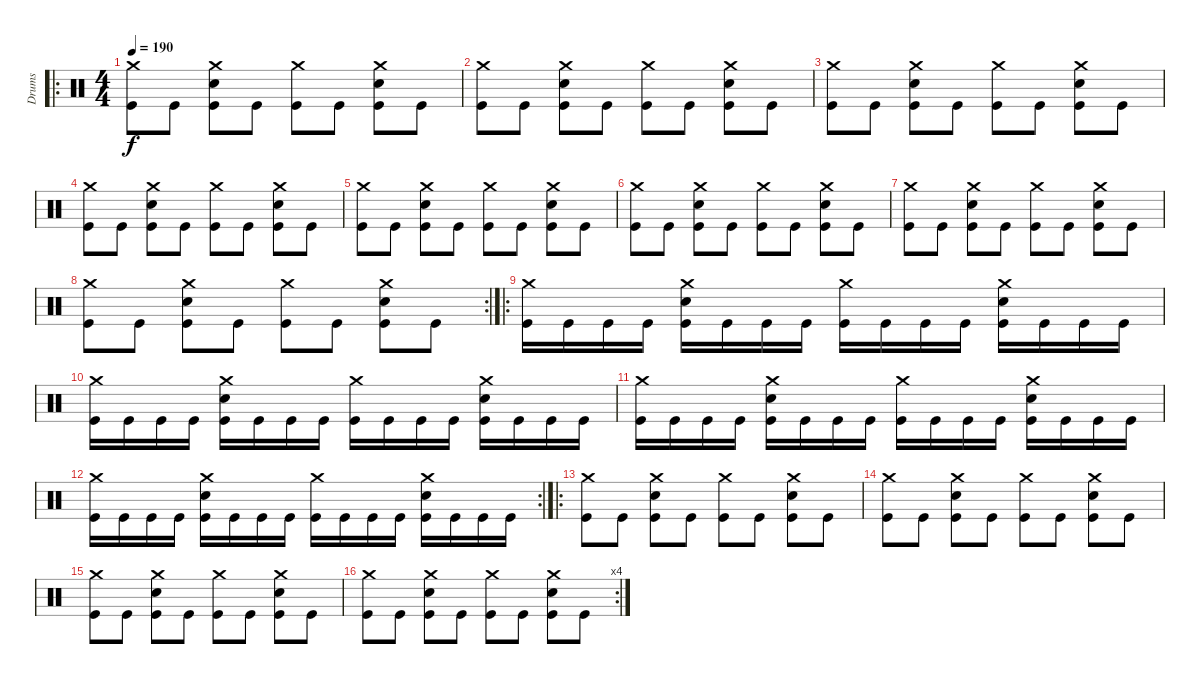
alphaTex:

\track ("Drums" "Drums") {instrument percussion}
\staff {score}
\articulation defaults
\ro
\ts (4 4)
\tempo 190
\clef neutral
\ks c
("Crash medium (hit)" "Kick (hit)").8{dy f} "Kick (hit)".8 ("Crash medium (hit)" "Snare (hit) 2" "Kick (hit)").8 "Kick (hit)".8 ("Crash medium (hit)" "Kick (hit)").8 "Kick (hit)".8 ("Crash medium (hit)" "Snare (hit) 2" "Kick (hit)").8 "Kick (hit)".8 |
("Crash medium (hit)" "Kick (hit)").8 "Kick (hit)".8 ("Crash medium (hit)" "Snare (hit) 2" "Kick (hit)").8 "Kick (hit)".8 ("Crash medium (hit)" "Kick (hit)").8 "Kick (hit)".8 ("Crash medium (hit)" "Snare (hit) 2" "Kick (hit)").8 "Kick (hit)".8 |
("Crash medium (hit)" "Kick (hit)").8 "Kick (hit)".8 ("Crash medium (hit)" "Snare (hit) 2" "Kick (hit)").8 "Kick (hit)".8 ("Crash medium (hit)" "Kick (hit)").8 "Kick (hit)".8 ("Crash medium (hit)" "Snare (hit) 2" "Kick (hit)").8 "Kick (hit)".8 |
("Crash medium (hit)" "Kick (hit)").8 "Kick (hit)".8 ("Crash medium (hit)" "Snare (hit) 2" "Kick (hit)").8 "Kick (hit)".8 ("Crash medium (hit)" "Kick (hit)").8 "Kick (hit)".8 ("Crash medium (hit)" "Snare (hit) 2" "Kick (hit)").8 "Kick (hit)".8 |
("Crash medium (hit)" "Kick (hit)").8 "Kick (hit)".8 ("Crash medium (hit)" "Snare (hit) 2" "Kick (hit)").8 "Kick (hit)".8 ("Crash medium (hit)" "Kick (hit)").8 "Kick (hit)".8 ("Crash medium (hit)" "Snare (hit) 2" "Kick (hit)").8 "Kick (hit)".8 |
("Crash medium (hit)" "Kick (hit)").8 "Kick (hit)".8 ("Crash medium (hit)" "Snare (hit) 2" "Kick (hit)").8 "Kick (hit)".8 ("Crash medium (hit)" "Kick (hit)").8 "Kick (hit)".8 ("Crash medium (hit)" "Snare (hit) 2" "Kick (hit)").8 "Kick (hit)".8 |
("Crash medium (hit)" "Kick (hit)").8 "Kick (hit)".8 ("Crash medium (hit)" "Snare (hit) 2" "Kick (hit)").8 "Kick (hit)".8 ("Crash medium (hit)" "Kick (hit)").8 "Kick (hit)".8 ("Crash medium (hit)" "Snare (hit) 2" "Kick (hit)").8 "Kick (hit)".8 |
\rc 2
("Crash medium (hit)" "Kick (hit)").8 "Kick (hit)".8 ("Crash medium (hit)" "Snare (hit) 2" "Kick (hit)").8 "Kick (hit)".8 ("Crash medium (hit)" "Kick (hit)").8 "Kick (hit)".8 ("Crash medium (hit)" "Snare (hit) 2" "Kick (hit)").8 "Kick (hit)".8 |
\ro
("Crash medium (hit)" "Kick (hit)").16 "Kick (hit)".16 "Kick (hit)".16 "Kick (hit)".16 ("Crash medium (hit)" "Snare (hit) 2" "Kick (hit)").16 "Kick (hit)".16 "Kick (hit)".16 "Kick (hit)".16 ("Crash medium (hit)" "Kick (hit)").16 "Kick (hit)".16 "Kick (hit)".16 "Kick (hit)".16 ("Crash medium (hit)" "Snare (hit) 2" "Kick (hit)").16 "Kick (hit)".16 "Kick (hit)".16 "Kick (hit)".16 |
("Crash medium (hit)" "Kick (hit)").16 "Kick (hit)".16 "Kick (hit)".16 "Kick (hit)".16 ("Crash medium (hit)" "Snare (hit) 2" "Kick (hit)").16 "Kick (hit)".16 "Kick (hit)".16 "Kick (hit)".16 ("Crash medium (hit)" "Kick (hit)").16 "Kick (hit)".16 "Kick (hit)".16 "Kick (hit)".16 ("Crash medium (hit)" "Snare (hit) 2" "Kick (hit)").16 "Kick (hit)".16 "Kick (hit)".16 "Kick (hit)".16 |
("Crash medium (hit)" "Kick (hit)").16 "Kick (hit)".16 "Kick (hit)".16 "Kick (hit)".16 ("Crash medium (hit)" "Snare (hit) 2" "Kick (hit)").16 "Kick (hit)".16 "Kick (hit)".16 "Kick (hit)".16 ("Crash medium (hit)" "Kick (hit)").16 "Kick (hit)".16 "Kick (hit)".16 "Kick (hit)".16 ("Crash medium (hit)" "Snare (hit) 2" "Kick (hit)").16 "Kick (hit)".16 "Kick (hit)".16 "Kick (hit)".16 |
\rc 2
("Crash medium (hit)" "Kick (hit)").16 "Kick (hit)".16 "Kick (hit)".16 "Kick (hit)".16 ("Crash medium (hit)" "Snare (hit) 2" "Kick (hit)").16 "Kick (hit)".16 "Kick (hit)".16 "Kick (hit)".16 ("Crash medium (hit)" "Kick (hit)").16 "Kick (hit)".16 "Kick (hit)".16 "Kick (hit)".16 ("Crash medium (hit)" "Snare (hit) 2" "Kick (hit)").16 "Kick (hit)".16 "Kick (hit)".16 "Kick (hit)".16 |
\ro
("Crash medium (hit)" "Kick (hit)").8 "Kick (hit)".8 ("Crash medium (hit)" "Snare (hit) 2" "Kick (hit)").8 "Kick (hit)".8 ("Crash medium (hit)" "Kick (hit)").8 "Kick (hit)".8 ("Crash medium (hit)" "Snare (hit) 2" "Kick (hit)").8 "Kick (hit)".8 |
("Crash medium (hit)" "Kick (hit)").8 "Kick (hit)".8 ("Crash medium (hit)" "Snare (hit) 2" "Kick (hit)").8 "Kick (hit)".8 ("Crash medium (hit)" "Kick (hit)").8 "Kick (hit)".8 ("Crash medium (hit)" "Snare (hit) 2" "Kick (hit)").8 "Kick (hit)".8 |
("Crash medium (hit)" "Kick (hit)").8 "Kick (hit)".8 ("Crash medium (hit)" "Snare (hit) 2" "Kick (hit)").8 "Kick (hit)".8 ("Crash medium (hit)" "Kick (hit)").8 "Kick (hit)".8 ("Crash medium (hit)" "Snare (hit) 2" "Kick (hit)").8 "Kick (hit)".8 |
\rc 4
("Crash medium (hit)" "Kick (hit)").8 "Kick (hit)".8 ("Crash medium (hit)" "Snare (hit) 2" "Kick (hit)").8 "Kick (hit)".8 ("Crash medium (hit)" "Kick (hit)").8 "Kick (hit)".8 ("Crash medium (hit)" "Snare (hit) 2" "Kick (hit)").8 "Kick (hit)".8
